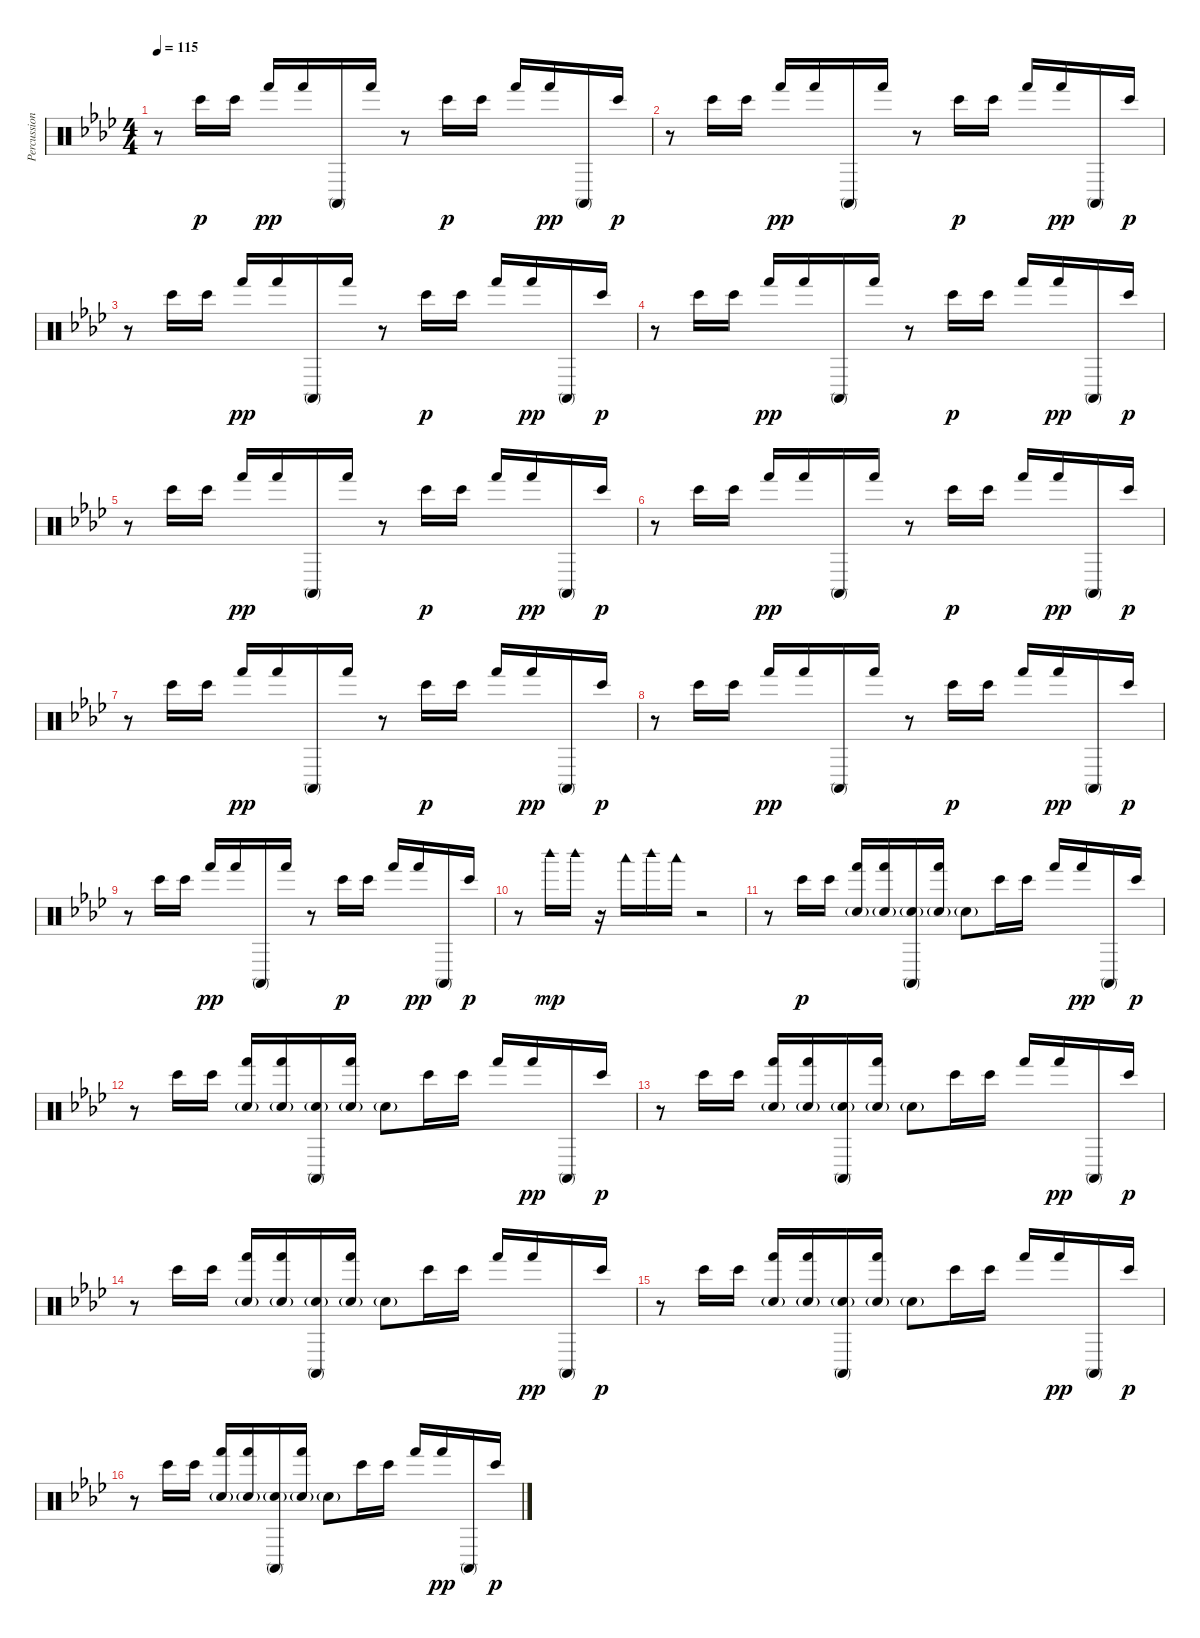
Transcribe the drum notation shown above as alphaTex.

\track ("Percussion" "Percussion") {instrument percussion}
\staff {score}
\articulation defaults
\ts (4 4)
\tempo 115
\clef neutral
\ks ab
r.8{dy p} "Bongo High (hit)".16 "Bongo High (hit)".16 "Hand (hit)".16{dy pp} "Hand (hit)".16 "Conga high (mute)".16 "Hand (hit)".16 r.8 "Bongo High (hit)".16{dy p} "Bongo High (hit)".16 "Hand (hit)".16 "Hand (hit)".16{dy pp} "Conga high (mute)".16 "Bongo High (hit)".16{dy p} |
r.8 "Bongo High (hit)".16 "Bongo High (hit)".16 "Hand (hit)".16{dy pp} "Hand (hit)".16 "Conga high (mute)".16 "Hand (hit)".16 r.8 "Bongo High (hit)".16{dy p} "Bongo High (hit)".16 "Hand (hit)".16 "Hand (hit)".16{dy pp} "Conga high (mute)".16 "Bongo High (hit)".16{dy p} |
r.8 "Bongo High (hit)".16 "Bongo High (hit)".16 "Hand (hit)".16{dy pp} "Hand (hit)".16 "Conga high (mute)".16 "Hand (hit)".16 r.8 "Bongo High (hit)".16{dy p} "Bongo High (hit)".16 "Hand (hit)".16 "Hand (hit)".16{dy pp} "Conga high (mute)".16 "Bongo High (hit)".16{dy p} |
r.8 "Bongo High (hit)".16 "Bongo High (hit)".16 "Hand (hit)".16{dy pp} "Hand (hit)".16 "Conga high (mute)".16 "Hand (hit)".16 r.8 "Bongo High (hit)".16{dy p} "Bongo High (hit)".16 "Hand (hit)".16 "Hand (hit)".16{dy pp} "Conga high (mute)".16 "Bongo High (hit)".16{dy p} |
r.8 "Bongo High (hit)".16 "Bongo High (hit)".16 "Hand (hit)".16{dy pp} "Hand (hit)".16 "Conga high (mute)".16 "Hand (hit)".16 r.8 "Bongo High (hit)".16{dy p} "Bongo High (hit)".16 "Hand (hit)".16 "Hand (hit)".16{dy pp} "Conga high (mute)".16 "Bongo High (hit)".16{dy p} |
r.8 "Bongo High (hit)".16 "Bongo High (hit)".16 "Hand (hit)".16{dy pp} "Hand (hit)".16 "Conga high (mute)".16 "Hand (hit)".16 r.8 "Bongo High (hit)".16{dy p} "Bongo High (hit)".16 "Hand (hit)".16 "Hand (hit)".16{dy pp} "Conga high (mute)".16 "Bongo High (hit)".16{dy p} |
r.8 "Bongo High (hit)".16 "Bongo High (hit)".16 "Hand (hit)".16{dy pp} "Hand (hit)".16 "Conga high (mute)".16 "Hand (hit)".16 r.8 "Bongo High (hit)".16{dy p} "Bongo High (hit)".16 "Hand (hit)".16 "Hand (hit)".16{dy pp} "Conga high (mute)".16 "Bongo High (hit)".16{dy p} |
r.8 "Bongo High (hit)".16 "Bongo High (hit)".16 "Hand (hit)".16{dy pp} "Hand (hit)".16 "Conga high (mute)".16 "Hand (hit)".16 r.8 "Bongo High (hit)".16{dy p} "Bongo High (hit)".16 "Hand (hit)".16 "Hand (hit)".16{dy pp} "Conga high (mute)".16 "Bongo High (hit)".16{dy p} |
r.8 "Bongo High (hit)".16 "Bongo High (hit)".16 "Hand (hit)".16{dy pp} "Hand (hit)".16 "Conga high (mute)".16 "Hand (hit)".16 r.8 "Bongo High (hit)".16{dy p} "Bongo High (hit)".16 "Hand (hit)".16 "Hand (hit)".16{dy pp} "Conga high (mute)".16 "Bongo High (hit)".16{dy p} |
r.8 "Woodblock high (hit)".16{dy mp} "Woodblock high (hit)".16 r.16 "Woodblock low (hit)".16 "Woodblock high (hit)".16 "Woodblock low (hit)".16 r.2 |
r.8 "Bongo High (hit)".16{dy p} "Bongo High (hit)".16 ("Electric Snare (hit)"{g} "Hand (hit)").16 ("Electric Snare (hit)"{g} "Hand (hit)").16 ("Electric Snare (hit)"{g} "Conga high (mute)").16 ("Electric Snare (hit)"{g} "Hand (hit)").16 "Electric Snare (hit)"{g}.8 "Bongo High (hit)".16 "Bongo High (hit)".16 "Hand (hit)".16 "Hand (hit)".16{dy pp} "Conga high (mute)".16 "Bongo High (hit)".16{dy p} |
r.8 "Bongo High (hit)".16 "Bongo High (hit)".16 ("Electric Snare (hit)"{g} "Hand (hit)").16 ("Electric Snare (hit)"{g} "Hand (hit)").16 ("Electric Snare (hit)"{g} "Conga high (mute)").16 ("Electric Snare (hit)"{g} "Hand (hit)").16 "Electric Snare (hit)"{g}.8 "Bongo High (hit)".16 "Bongo High (hit)".16 "Hand (hit)".16 "Hand (hit)".16{dy pp} "Conga high (mute)".16 "Bongo High (hit)".16{dy p} |
r.8 "Bongo High (hit)".16 "Bongo High (hit)".16 ("Electric Snare (hit)"{g} "Hand (hit)").16 ("Electric Snare (hit)"{g} "Hand (hit)").16 ("Electric Snare (hit)"{g} "Conga high (mute)").16 ("Electric Snare (hit)"{g} "Hand (hit)").16 "Electric Snare (hit)"{g}.8 "Bongo High (hit)".16 "Bongo High (hit)".16 "Hand (hit)".16 "Hand (hit)".16{dy pp} "Conga high (mute)".16 "Bongo High (hit)".16{dy p} |
r.8 "Bongo High (hit)".16 "Bongo High (hit)".16 ("Electric Snare (hit)"{g} "Hand (hit)").16 ("Electric Snare (hit)"{g} "Hand (hit)").16 ("Electric Snare (hit)"{g} "Conga high (mute)").16 ("Electric Snare (hit)"{g} "Hand (hit)").16 "Electric Snare (hit)"{g}.8 "Bongo High (hit)".16 "Bongo High (hit)".16 "Hand (hit)".16 "Hand (hit)".16{dy pp} "Conga high (mute)".16 "Bongo High (hit)".16{dy p} |
r.8 "Bongo High (hit)".16 "Bongo High (hit)".16 ("Electric Snare (hit)"{g} "Hand (hit)").16 ("Electric Snare (hit)"{g} "Hand (hit)").16 ("Electric Snare (hit)"{g} "Conga high (mute)").16 ("Electric Snare (hit)"{g} "Hand (hit)").16 "Electric Snare (hit)"{g}.8 "Bongo High (hit)".16 "Bongo High (hit)".16 "Hand (hit)".16 "Hand (hit)".16{dy pp} "Conga high (mute)".16 "Bongo High (hit)".16{dy p} |
r.8 "Bongo High (hit)".16 "Bongo High (hit)".16 ("Electric Snare (hit)"{g} "Hand (hit)").16 ("Electric Snare (hit)"{g} "Hand (hit)").16 ("Electric Snare (hit)"{g} "Conga high (mute)").16 ("Electric Snare (hit)"{g} "Hand (hit)").16 "Electric Snare (hit)"{g}.8 "Bongo High (hit)".16 "Bongo High (hit)".16 "Hand (hit)".16 "Hand (hit)".16{dy pp} "Conga high (mute)".16 "Bongo High (hit)".16{dy p}
